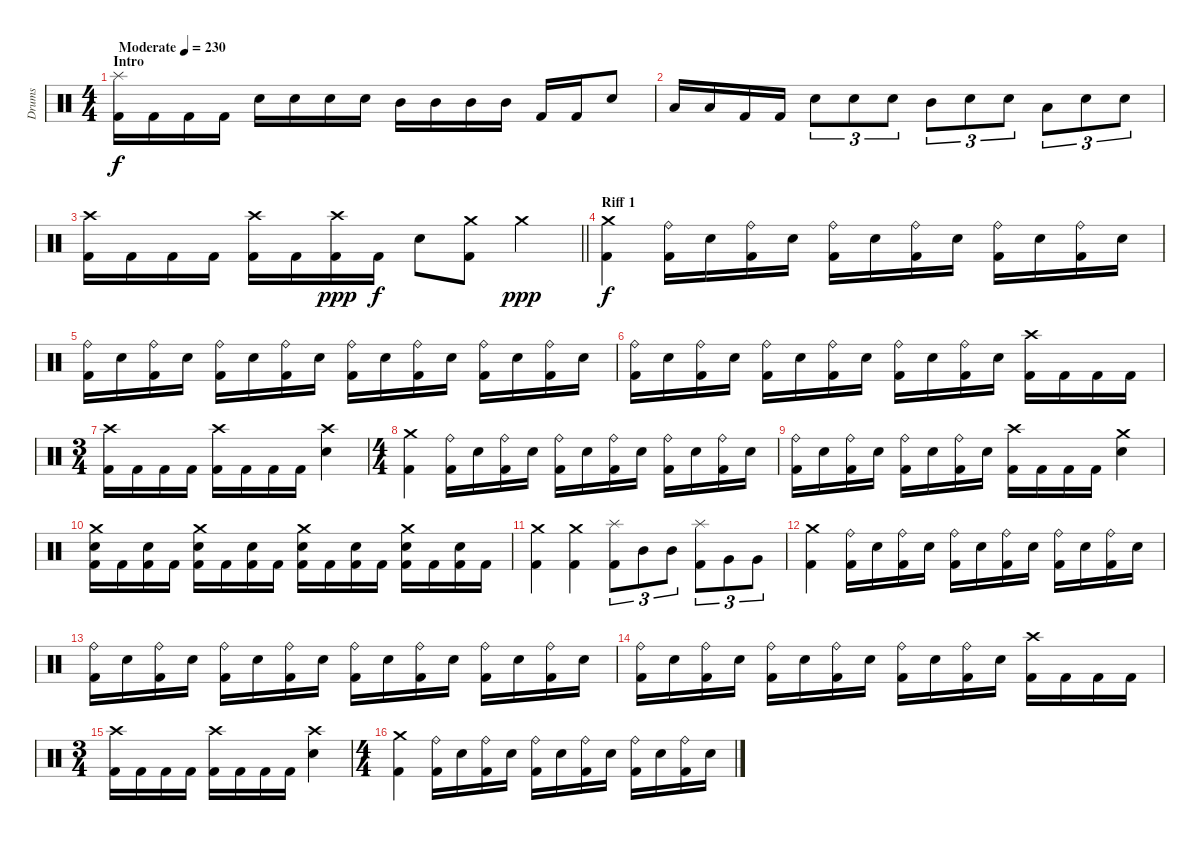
\track ("Drums" "Drums") {instrument percussion}
\staff {score}
\articulation defaults
\ts (4 4)
\section ("" "Intro")
\tempo (230 "Moderate")
\clef neutral
\ks c
("Splash (hit)" "Kick (hit) 2").16{dy f} "Kick (hit) 2".16 "Kick (hit) 2".16 "Kick (hit) 2".16 "Electric Snare (hit)".16 "Electric Snare (hit)".16 "Electric Snare (hit)".16 "Electric Snare (hit)".16 "Mid Tom (hit)".16 "Mid Tom (hit)".16 "Mid Tom (hit)".16 "Mid Tom (hit)".16 "Kick (hit) 2".16 "Kick (hit) 2".16 "Electric Snare (hit)".8 |
"Low Tom (hit)".16 "Low Tom (hit)".16 "Kick (hit) 2".16 "Kick (hit) 2".16 "Electric Snare (hit)".8{tu (3 2)} "Electric Snare (hit)".8{tu (3 2)} "Electric Snare (hit)".8{tu (3 2)} "Mid Tom (hit)".8{tu (3 2)} "Electric Snare (hit)".8{tu (3 2)} "Electric Snare (hit)".8{tu (3 2)} "Low Tom (hit)".8{tu (3 2)} "Electric Snare (hit)".8{tu (3 2)} "Electric Snare (hit)".8{tu (3 2)} |
\barLineRight lightlight
("Crash high (hit)" "Kick (hit) 2").16 "Kick (hit) 2".16 "Kick (hit) 2".16 "Kick (hit) 2".16 ("Crash high (hit)" "Kick (hit) 2").16 "Kick (hit) 2".16 ("Crash high (hit)" "Kick (hit) 2").16{dy ppp} "Kick (hit) 2".16{dy f} "Electric Snare (hit)".8 ("Crash medium (hit)" "Kick (hit) 2").8 "Crash medium (hit)".4{dy ppp} |
\section ("" "Riff 1")
("Crash medium (hit)" "Kick (hit) 2").4{dy f} ("Ride (bell)" "Kick (hit) 2").16 "Electric Snare (hit)".16 ("Ride (bell)" "Kick (hit) 2").16 "Electric Snare (hit)".16 ("Ride (bell)" "Kick (hit) 2").16 "Electric Snare (hit)".16 ("Ride (bell)" "Kick (hit) 2").16 "Electric Snare (hit)".16 ("Ride (bell)" "Kick (hit) 2").16 "Electric Snare (hit)".16 ("Ride (bell)" "Kick (hit) 2").16 "Electric Snare (hit)".16 |
("Ride (bell)" "Kick (hit) 2").16 "Electric Snare (hit)".16 ("Ride (bell)" "Kick (hit) 2").16 "Electric Snare (hit)".16 ("Ride (bell)" "Kick (hit) 2").16 "Electric Snare (hit)".16 ("Ride (bell)" "Kick (hit) 2").16 "Electric Snare (hit)".16 ("Ride (bell)" "Kick (hit) 2").16 "Electric Snare (hit)".16 ("Ride (bell)" "Kick (hit) 2").16 "Electric Snare (hit)".16 ("Ride (bell)" "Kick (hit) 2").16 "Electric Snare (hit)".16 ("Ride (bell)" "Kick (hit) 2").16 "Electric Snare (hit)".16 |
("Ride (bell)" "Kick (hit) 2").16 "Electric Snare (hit)".16 ("Ride (bell)" "Kick (hit) 2").16 "Electric Snare (hit)".16 ("Ride (bell)" "Kick (hit) 2").16 "Electric Snare (hit)".16 ("Ride (bell)" "Kick (hit) 2").16 "Electric Snare (hit)".16 ("Ride (bell)" "Kick (hit) 2").16 "Electric Snare (hit)".16 ("Ride (bell)" "Kick (hit) 2").16 "Electric Snare (hit)".16 ("Crash high (hit)" "Kick (hit) 2").16 "Kick (hit) 2".16 "Kick (hit) 2".16 "Kick (hit) 2".16 |
\ts (3 4)
("Crash high (hit)" "Kick (hit) 2").16 "Kick (hit) 2".16 "Kick (hit) 2".16 "Kick (hit) 2".16 ("Crash high (hit)" "Kick (hit) 2").16 "Kick (hit) 2".16 "Kick (hit) 2".16 "Kick (hit) 2".16 ("Electric Snare (hit)" "Crash high (hit)").4 |
\ts (4 4)
("Crash medium (hit)" "Kick (hit) 2").4 ("Ride (bell)" "Kick (hit) 2").16 "Electric Snare (hit)".16 ("Ride (bell)" "Kick (hit) 2").16 "Electric Snare (hit)".16 ("Ride (bell)" "Kick (hit) 2").16 "Electric Snare (hit)".16 ("Ride (bell)" "Kick (hit) 2").16 "Electric Snare (hit)".16 ("Ride (bell)" "Kick (hit) 2").16 "Electric Snare (hit)".16 ("Ride (bell)" "Kick (hit) 2").16 "Electric Snare (hit)".16 |
("Ride (bell)" "Kick (hit) 2").16 "Electric Snare (hit)".16 ("Ride (bell)" "Kick (hit) 2").16 "Electric Snare (hit)".16 ("Ride (bell)" "Kick (hit) 2").16 "Electric Snare (hit)".16 ("Ride (bell)" "Kick (hit) 2").16 "Electric Snare (hit)".16 ("Kick (hit) 2" "Crash high (hit)").16 "Kick (hit) 2".16 "Kick (hit) 2".16 "Kick (hit) 2".16 ("Electric Snare (hit)" "Crash medium (hit)").4 |
("Electric Snare (hit)" "Crash medium (hit)" "Kick (hit) 2").16 "Kick (hit) 2".16 ("Electric Snare (hit)" "Kick (hit) 2").16 "Kick (hit) 2".16 ("Electric Snare (hit)" "Crash medium (hit)" "Kick (hit) 2").16 "Kick (hit) 2".16 ("Electric Snare (hit)" "Kick (hit) 2").16 "Kick (hit) 2".16 ("Electric Snare (hit)" "Crash medium (hit)" "Kick (hit) 2").16 "Kick (hit) 2".16 ("Electric Snare (hit)" "Kick (hit) 2").16 "Kick (hit) 2".16 ("Electric Snare (hit)" "Crash medium (hit)" "Kick (hit) 2").16 "Kick (hit) 2".16 ("Electric Snare (hit)" "Kick (hit) 2").16 "Kick (hit) 2".16 |
("Crash medium (hit)" "Kick (hit) 2").4 ("Crash medium (hit)" "Kick (hit) 2").4 ("Splash (hit)" "Kick (hit) 2").8{tu (3 2)} "Mid Tom (hit)".8{tu (3 2)} "Mid Tom (hit)".8{tu (3 2)} ("Splash (hit)" "Kick (hit) 2").8{tu (3 2)} "Very Low Tom (hit)".8{tu (3 2)} "Very Low Tom (hit)".8{tu (3 2)} |
("Crash medium (hit)" "Kick (hit) 2").4 ("Ride (bell)" "Kick (hit) 2").16 "Electric Snare (hit)".16 ("Ride (bell)" "Kick (hit) 2").16 "Electric Snare (hit)".16 ("Ride (bell)" "Kick (hit) 2").16 "Electric Snare (hit)".16 ("Ride (bell)" "Kick (hit) 2").16 "Electric Snare (hit)".16 ("Ride (bell)" "Kick (hit) 2").16 "Electric Snare (hit)".16 ("Ride (bell)" "Kick (hit) 2").16 "Electric Snare (hit)".16 |
("Ride (bell)" "Kick (hit) 2").16 "Electric Snare (hit)".16 ("Ride (bell)" "Kick (hit) 2").16 "Electric Snare (hit)".16 ("Ride (bell)" "Kick (hit) 2").16 "Electric Snare (hit)".16 ("Ride (bell)" "Kick (hit) 2").16 "Electric Snare (hit)".16 ("Ride (bell)" "Kick (hit) 2").16 "Electric Snare (hit)".16 ("Ride (bell)" "Kick (hit) 2").16 "Electric Snare (hit)".16 ("Ride (bell)" "Kick (hit) 2").16 "Electric Snare (hit)".16 ("Ride (bell)" "Kick (hit) 2").16 "Electric Snare (hit)".16 |
("Ride (bell)" "Kick (hit) 2").16 "Electric Snare (hit)".16 ("Ride (bell)" "Kick (hit) 2").16 "Electric Snare (hit)".16 ("Ride (bell)" "Kick (hit) 2").16 "Electric Snare (hit)".16 ("Ride (bell)" "Kick (hit) 2").16 "Electric Snare (hit)".16 ("Ride (bell)" "Kick (hit) 2").16 "Electric Snare (hit)".16 ("Ride (bell)" "Kick (hit) 2").16 "Electric Snare (hit)".16 ("Crash high (hit)" "Kick (hit) 2").16 "Kick (hit) 2".16 "Kick (hit) 2".16 "Kick (hit) 2".16 |
\ts (3 4)
("Crash high (hit)" "Kick (hit) 2").16 "Kick (hit) 2".16 "Kick (hit) 2".16 "Kick (hit) 2".16 ("Crash high (hit)" "Kick (hit) 2").16 "Kick (hit) 2".16 "Kick (hit) 2".16 "Kick (hit) 2".16 ("Electric Snare (hit)" "Crash high (hit)").4 |
\ts (4 4)
("Crash medium (hit)" "Kick (hit) 2").4 ("Ride (bell)" "Kick (hit) 2").16 "Electric Snare (hit)".16 ("Ride (bell)" "Kick (hit) 2").16 "Electric Snare (hit)".16 ("Ride (bell)" "Kick (hit) 2").16 "Electric Snare (hit)".16 ("Ride (bell)" "Kick (hit) 2").16 "Electric Snare (hit)".16 ("Ride (bell)" "Kick (hit) 2").16 "Electric Snare (hit)".16 ("Ride (bell)" "Kick (hit) 2").16 "Electric Snare (hit)".16
